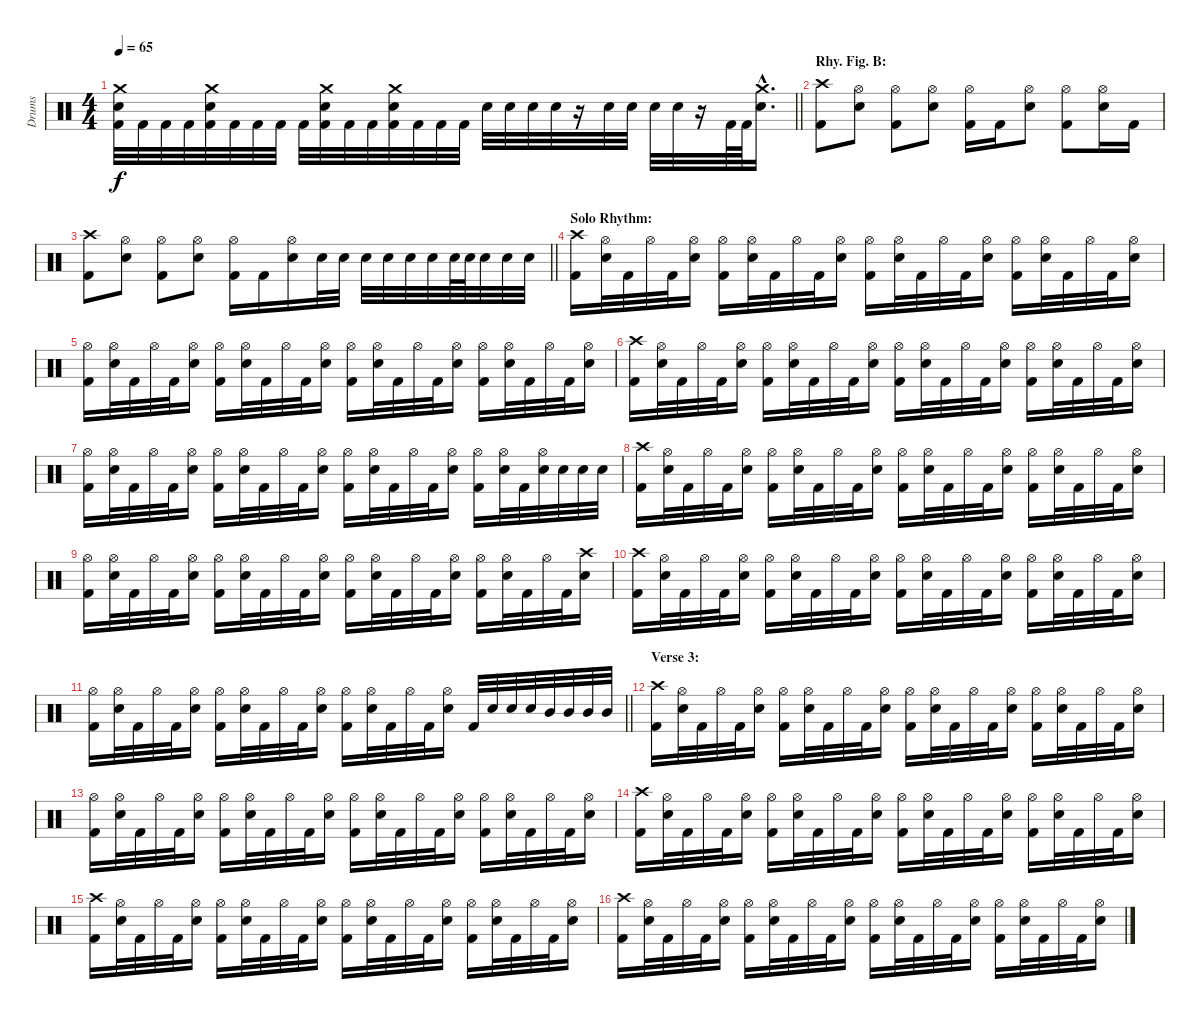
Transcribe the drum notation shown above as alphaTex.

\track ("Drums" "Drums") {instrument percussion}
\staff {score}
\articulation defaults
\ts (4 4)
\tempo 65
\clef neutral
\barLineRight lightlight
\ks c
("Crash medium (hit)" "Snare (hit) 2" "Kick (hit) 2").32{dy f} "Kick (hit) 2".32 "Kick (hit) 2".32 "Kick (hit) 2".32 ("Crash medium (hit)" "Snare (hit) 2" "Kick (hit) 2").32 "Kick (hit) 2".32 "Kick (hit) 2".32 "Kick (hit) 2".32 "Kick (hit) 2".32 ("Crash medium (hit)" "Snare (hit) 2" "Kick (hit) 2").32 "Kick (hit) 2".32 "Kick (hit) 2".32 ("Crash medium (hit)" "Snare (hit) 2" "Kick (hit) 2").32 "Kick (hit) 2".32 "Kick (hit) 2".32 "Kick (hit) 2".32 "Snare (hit) 2".32 "Snare (hit) 2".32 "Snare (hit) 2".32 "Snare (hit) 2".32 r.16 "Snare (hit) 2".32 "Snare (hit) 2".32 "Snare (hit) 2".32 "Snare (hit) 2".32 r.16 "Kick (hit) 2".64 "Kick (hit) 2".64 ("Crash medium (hit)"{hac} "Snare (hit) 2"{hac}).16{d} |
\section ("" "Rhy. Fig. B:")
("Crash high (hit)" "Kick (hit) 2").8 ("Hi-Hat (open)" "Snare (hit) 2").8 ("Hi-Hat (open)" "Kick (hit) 2").8 ("Hi-Hat (open)" "Snare (hit) 2").8 ("Hi-Hat (open)" "Kick (hit) 2").16 "Kick (hit) 2".16 ("Hi-Hat (open)" "Snare (hit) 2").8 ("Hi-Hat (open)" "Kick (hit) 2").8 ("Hi-Hat (open)" "Snare (hit) 2").16 "Kick (hit) 2".16 |
\barLineRight lightlight
("Crash high (hit)" "Kick (hit) 2").8 ("Hi-Hat (open)" "Snare (hit) 2").8 ("Hi-Hat (open)" "Kick (hit) 2").8 ("Hi-Hat (open)" "Snare (hit) 2").8 ("Hi-Hat (open)" "Kick (hit) 2").16 "Kick (hit) 2".16 ("Hi-Hat (open)" "Snare (hit) 2").16 "Snare (hit) 2".32 "Snare (hit) 2".32 "Snare (hit) 2".32 "Snare (hit) 2".32 "Snare (hit) 2".32 "Snare (hit) 2".32 "Snare (hit) 2".64 "Snare (hit) 2".64 "Snare (hit) 2".32 "Snare (hit) 2".32 "Snare (hit) 2".32 |
\section ("" "Solo Rhythm:")
("Crash high (hit)" "Kick (hit) 2").16 ("Hi-Hat (open)" "Snare (hit) 2").32 "Kick (hit) 2".32 "Hi-Hat (open)".32 "Kick (hit) 2".32 ("Hi-Hat (open)" "Snare (hit) 2").16 ("Hi-Hat (open)" "Kick (hit) 2").16 ("Hi-Hat (open)" "Snare (hit) 2").32 "Kick (hit) 2".32 "Hi-Hat (open)".32 "Kick (hit) 2".32 ("Hi-Hat (open)" "Snare (hit) 2").16 ("Hi-Hat (open)" "Kick (hit) 2").16 ("Hi-Hat (open)" "Snare (hit) 2").32 "Kick (hit) 2".32 "Hi-Hat (open)".32 "Kick (hit) 2".32 ("Hi-Hat (open)" "Snare (hit) 2").16 ("Hi-Hat (open)" "Kick (hit) 2").16 ("Hi-Hat (open)" "Snare (hit) 2").32 "Kick (hit) 2".32 "Hi-Hat (open)".32 "Kick (hit) 2".32 ("Hi-Hat (open)" "Snare (hit) 2").16 |
("Hi-Hat (open)" "Kick (hit) 2").16 ("Hi-Hat (open)" "Snare (hit) 2").32 "Kick (hit) 2".32 "Hi-Hat (open)".32 "Kick (hit) 2".32 ("Hi-Hat (open)" "Snare (hit) 2").16 ("Hi-Hat (open)" "Kick (hit) 2").16 ("Hi-Hat (open)" "Snare (hit) 2").32 "Kick (hit) 2".32 "Hi-Hat (open)".32 "Kick (hit) 2".32 ("Hi-Hat (open)" "Snare (hit) 2").16 ("Hi-Hat (open)" "Kick (hit) 2").16 ("Hi-Hat (open)" "Snare (hit) 2").32 "Kick (hit) 2".32 "Hi-Hat (open)".32 "Kick (hit) 2".32 ("Hi-Hat (open)" "Snare (hit) 2").16 ("Hi-Hat (open)" "Kick (hit) 2").16 ("Hi-Hat (open)" "Snare (hit) 2").32 "Kick (hit) 2".32 "Hi-Hat (open)".32 "Kick (hit) 2".32 ("Hi-Hat (open)" "Snare (hit) 2").16 |
("Crash high (hit)" "Kick (hit) 2").16 ("Hi-Hat (open)" "Snare (hit) 2").32 "Kick (hit) 2".32 "Hi-Hat (open)".32 "Kick (hit) 2".32 ("Hi-Hat (open)" "Snare (hit) 2").16 ("Hi-Hat (open)" "Kick (hit) 2").16 ("Hi-Hat (open)" "Snare (hit) 2").32 "Kick (hit) 2".32 "Hi-Hat (open)".32 "Kick (hit) 2".32 ("Hi-Hat (open)" "Snare (hit) 2").16 ("Hi-Hat (open)" "Kick (hit) 2").16 ("Hi-Hat (open)" "Snare (hit) 2").32 "Kick (hit) 2".32 "Hi-Hat (open)".32 "Kick (hit) 2".32 ("Hi-Hat (open)" "Snare (hit) 2").16 ("Hi-Hat (open)" "Kick (hit) 2").16 ("Hi-Hat (open)" "Snare (hit) 2").32 "Kick (hit) 2".32 "Hi-Hat (open)".32 "Kick (hit) 2".32 ("Hi-Hat (open)" "Snare (hit) 2").16 |
("Hi-Hat (open)" "Kick (hit) 2").16 ("Hi-Hat (open)" "Snare (hit) 2").32 "Kick (hit) 2".32 "Hi-Hat (open)".32 "Kick (hit) 2".32 ("Hi-Hat (open)" "Snare (hit) 2").16 ("Hi-Hat (open)" "Kick (hit) 2").16 ("Hi-Hat (open)" "Snare (hit) 2").32 "Kick (hit) 2".32 "Hi-Hat (open)".32 "Kick (hit) 2".32 ("Hi-Hat (open)" "Snare (hit) 2").16 ("Hi-Hat (open)" "Kick (hit) 2").16 ("Hi-Hat (open)" "Snare (hit) 2").32 "Kick (hit) 2".32 "Hi-Hat (open)".32 "Kick (hit) 2".32 ("Hi-Hat (open)" "Snare (hit) 2").16 ("Hi-Hat (open)" "Kick (hit) 2").16 ("Hi-Hat (open)" "Snare (hit) 2").32 "Kick (hit) 2".32 ("Hi-Hat (open)" "Snare (hit) 2").32 "Snare (hit) 2".32 "Snare (hit) 2".32 "Snare (hit) 2".32 |
("Crash high (hit)" "Kick (hit) 2").16 ("Hi-Hat (open)" "Snare (hit) 2").32 "Kick (hit) 2".32 "Hi-Hat (open)".32 "Kick (hit) 2".32 ("Hi-Hat (open)" "Snare (hit) 2").16 ("Hi-Hat (open)" "Kick (hit) 2").16 ("Hi-Hat (open)" "Snare (hit) 2").32 "Kick (hit) 2".32 "Hi-Hat (open)".32 "Kick (hit) 2".32 ("Hi-Hat (open)" "Snare (hit) 2").16 ("Hi-Hat (open)" "Kick (hit) 2").16 ("Hi-Hat (open)" "Snare (hit) 2").32 "Kick (hit) 2".32 "Hi-Hat (open)".32 "Kick (hit) 2".32 ("Hi-Hat (open)" "Snare (hit) 2").16 ("Hi-Hat (open)" "Kick (hit) 2").16 ("Hi-Hat (open)" "Snare (hit) 2").32 "Kick (hit) 2".32 "Hi-Hat (open)".32 "Kick (hit) 2".32 ("Hi-Hat (open)" "Snare (hit) 2").16 |
("Hi-Hat (open)" "Kick (hit) 2").16 ("Hi-Hat (open)" "Snare (hit) 2").32 "Kick (hit) 2".32 "Hi-Hat (open)".32 "Kick (hit) 2".32 ("Hi-Hat (open)" "Snare (hit) 2").16 ("Hi-Hat (open)" "Kick (hit) 2").16 ("Hi-Hat (open)" "Snare (hit) 2").32 "Kick (hit) 2".32 "Hi-Hat (open)".32 "Kick (hit) 2".32 ("Hi-Hat (open)" "Snare (hit) 2").16 ("Hi-Hat (open)" "Kick (hit) 2").16 ("Hi-Hat (open)" "Snare (hit) 2").32 "Kick (hit) 2".32 "Hi-Hat (open)".32 "Kick (hit) 2".32 ("Hi-Hat (open)" "Snare (hit) 2").16 ("Hi-Hat (open)" "Kick (hit) 2").16 ("Hi-Hat (open)" "Snare (hit) 2").32 "Kick (hit) 2".32 "Hi-Hat (open)".32 "Kick (hit) 2".32 ("Crash high (hit)" "Snare (hit) 2").16 |
("Crash high (hit)" "Kick (hit) 2").16 ("Hi-Hat (open)" "Snare (hit) 2").32 "Kick (hit) 2".32 "Hi-Hat (open)".32 "Kick (hit) 2".32 ("Hi-Hat (open)" "Snare (hit) 2").16 ("Hi-Hat (open)" "Kick (hit) 2").16 ("Hi-Hat (open)" "Snare (hit) 2").32 "Kick (hit) 2".32 "Hi-Hat (open)".32 "Kick (hit) 2".32 ("Hi-Hat (open)" "Snare (hit) 2").16 ("Hi-Hat (open)" "Kick (hit) 2").16 ("Hi-Hat (open)" "Snare (hit) 2").32 "Kick (hit) 2".32 "Hi-Hat (open)".32 "Kick (hit) 2".32 ("Hi-Hat (open)" "Snare (hit) 2").16 ("Hi-Hat (open)" "Kick (hit) 2").16 ("Hi-Hat (open)" "Snare (hit) 2").32 "Kick (hit) 2".32 "Hi-Hat (open)".32 "Kick (hit) 2".32 ("Hi-Hat (open)" "Snare (hit) 2").16 |
\barLineRight lightlight
("Hi-Hat (open)" "Kick (hit) 2").16 ("Hi-Hat (open)" "Snare (hit) 2").32 "Kick (hit) 2".32 "Hi-Hat (open)".32 "Kick (hit) 2".32 ("Hi-Hat (open)" "Snare (hit) 2").16 ("Hi-Hat (open)" "Kick (hit) 2").16 ("Hi-Hat (open)" "Snare (hit) 2").32 "Kick (hit) 2".32 "Hi-Hat (open)".32 "Kick (hit) 2".32 ("Hi-Hat (open)" "Snare (hit) 2").16 ("Hi-Hat (open)" "Kick (hit) 2").16 ("Hi-Hat (open)" "Snare (hit) 2").32 "Kick (hit) 2".32 "Hi-Hat (open)".32 "Kick (hit) 2".32 ("Hi-Hat (open)" "Snare (hit) 2").16 "Kick (hit) 2".32 "Snare (hit) 2".32 "Snare (hit) 2".32 "Snare (hit) 2".32 "Mid Tom (hit)".32 "Mid Tom (hit)".32 "Mid Tom (hit)".32 "Mid Tom (hit)".32 |
\section ("" "Verse 3:")
("Crash high (hit)" "Kick (hit) 2").16 ("Hi-Hat (open)" "Snare (hit) 2").32 "Kick (hit) 2".32 "Hi-Hat (open)".32 "Kick (hit) 2".32 ("Hi-Hat (open)" "Snare (hit) 2").16 ("Hi-Hat (open)" "Kick (hit) 2").16 ("Hi-Hat (open)" "Snare (hit) 2").32 "Kick (hit) 2".32 "Hi-Hat (open)".32 "Kick (hit) 2".32 ("Hi-Hat (open)" "Snare (hit) 2").16 ("Hi-Hat (open)" "Kick (hit) 2").16 ("Hi-Hat (open)" "Snare (hit) 2").32 "Kick (hit) 2".32 "Hi-Hat (open)".32 "Kick (hit) 2".32 ("Hi-Hat (open)" "Snare (hit) 2").16 ("Hi-Hat (open)" "Kick (hit) 2").16 ("Hi-Hat (open)" "Snare (hit) 2").32 "Kick (hit) 2".32 "Hi-Hat (open)".32 "Kick (hit) 2".32 ("Hi-Hat (open)" "Snare (hit) 2").16 |
("Hi-Hat (open)" "Kick (hit) 2").16 ("Hi-Hat (open)" "Snare (hit) 2").32 "Kick (hit) 2".32 "Hi-Hat (open)".32 "Kick (hit) 2".32 ("Hi-Hat (open)" "Snare (hit) 2").16 ("Hi-Hat (open)" "Kick (hit) 2").16 ("Hi-Hat (open)" "Snare (hit) 2").32 "Kick (hit) 2".32 "Hi-Hat (open)".32 "Kick (hit) 2".32 ("Hi-Hat (open)" "Snare (hit) 2").16 ("Hi-Hat (open)" "Kick (hit) 2").16 ("Hi-Hat (open)" "Snare (hit) 2").32 "Kick (hit) 2".32 "Hi-Hat (open)".32 "Kick (hit) 2".32 ("Hi-Hat (open)" "Snare (hit) 2").16 ("Hi-Hat (open)" "Kick (hit) 2").16 ("Hi-Hat (open)" "Snare (hit) 2").32 "Kick (hit) 2".32 "Hi-Hat (open)".32 "Kick (hit) 2".32 ("Hi-Hat (open)" "Snare (hit) 2").16 |
("Crash high (hit)" "Kick (hit) 2").16 ("Hi-Hat (open)" "Snare (hit) 2").32 "Kick (hit) 2".32 "Hi-Hat (open)".32 "Kick (hit) 2".32 ("Hi-Hat (open)" "Snare (hit) 2").16 ("Hi-Hat (open)" "Kick (hit) 2").16 ("Hi-Hat (open)" "Snare (hit) 2").32 "Kick (hit) 2".32 "Hi-Hat (open)".32 "Kick (hit) 2".32 ("Hi-Hat (open)" "Snare (hit) 2").16 ("Hi-Hat (open)" "Kick (hit) 2").16 ("Hi-Hat (open)" "Snare (hit) 2").32 "Kick (hit) 2".32 "Hi-Hat (open)".32 "Kick (hit) 2".32 ("Hi-Hat (open)" "Snare (hit) 2").16 ("Hi-Hat (open)" "Kick (hit) 2").16 ("Hi-Hat (open)" "Snare (hit) 2").32 "Kick (hit) 2".32 "Hi-Hat (open)".32 "Kick (hit) 2".32 ("Hi-Hat (open)" "Snare (hit) 2").16 |
("Crash high (hit)" "Kick (hit) 2").16 ("Hi-Hat (open)" "Snare (hit) 2").32 "Kick (hit) 2".32 "Hi-Hat (open)".32 "Kick (hit) 2".32 ("Hi-Hat (open)" "Snare (hit) 2").16 ("Hi-Hat (open)" "Kick (hit) 2").16 ("Hi-Hat (open)" "Snare (hit) 2").32 "Kick (hit) 2".32 "Hi-Hat (open)".32 "Kick (hit) 2".32 ("Hi-Hat (open)" "Snare (hit) 2").16 ("Hi-Hat (open)" "Kick (hit) 2").16 ("Hi-Hat (open)" "Snare (hit) 2").32 "Kick (hit) 2".32 "Hi-Hat (open)".32 "Kick (hit) 2".32 ("Hi-Hat (open)" "Snare (hit) 2").16 ("Hi-Hat (open)" "Kick (hit) 2").16 ("Hi-Hat (open)" "Snare (hit) 2").32 "Kick (hit) 2".32 "Hi-Hat (open)".32 "Kick (hit) 2".32 ("Hi-Hat (open)" "Snare (hit) 2").16 |
("Crash high (hit)" "Kick (hit) 2").16 ("Hi-Hat (open)" "Snare (hit) 2").32 "Kick (hit) 2".32 "Hi-Hat (open)".32 "Kick (hit) 2".32 ("Hi-Hat (open)" "Snare (hit) 2").16 ("Hi-Hat (open)" "Kick (hit) 2").16 ("Hi-Hat (open)" "Snare (hit) 2").32 "Kick (hit) 2".32 "Hi-Hat (open)".32 "Kick (hit) 2".32 ("Hi-Hat (open)" "Snare (hit) 2").16 ("Hi-Hat (open)" "Kick (hit) 2").16 ("Hi-Hat (open)" "Snare (hit) 2").32 "Kick (hit) 2".32 "Hi-Hat (open)".32 "Kick (hit) 2".32 ("Hi-Hat (open)" "Snare (hit) 2").16 ("Hi-Hat (open)" "Kick (hit) 2").16 ("Hi-Hat (open)" "Snare (hit) 2").32 "Kick (hit) 2".32 "Hi-Hat (open)".32 "Kick (hit) 2".32 ("Hi-Hat (open)" "Snare (hit) 2").16
